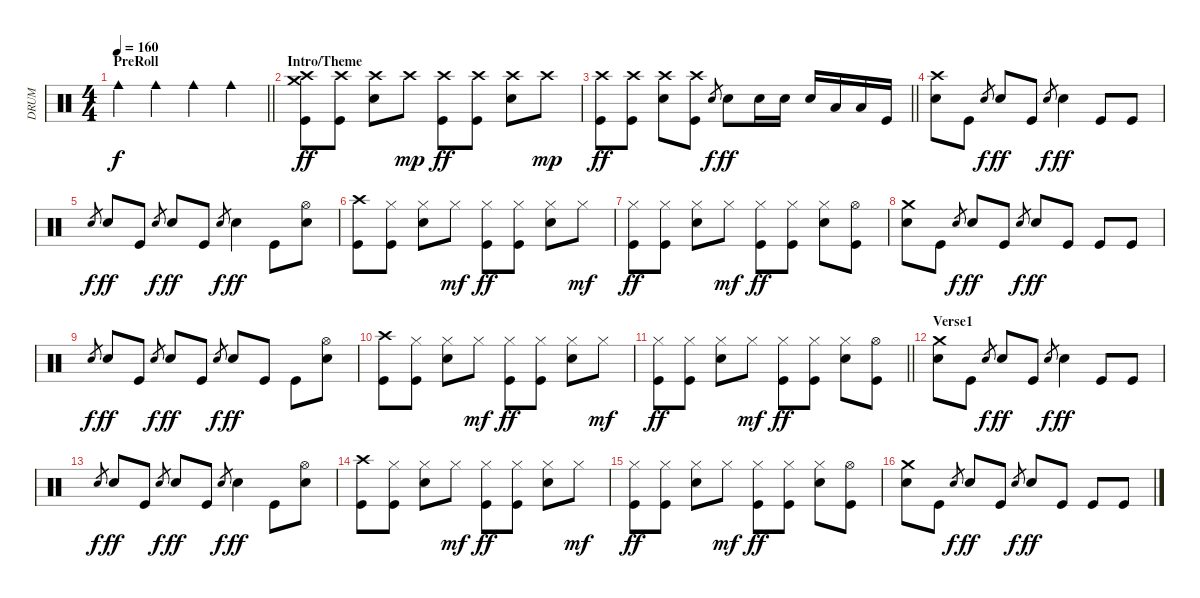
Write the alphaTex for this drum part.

\track ("DRUM" "DRUM") {instrument percussion}
\staff {score}
\articulation defaults
\ts (4 4)
\section ("" "PreRoll")
\tempo 160
\clef neutral
\barLineRight lightlight
\ks c "Cowbell medium (hit)".4{dy f} "Cowbell medium (hit)".4 "Cowbell medium (hit)".4 "Cowbell medium (hit)".4
|
\section ("" "Intro/Theme")
("Crash high (hit)" "Crash medium (hit)" "Kick (hit)").8{dy ff} ("Crash high (hit)" "Kick (hit)").8 ("Crash high (hit)" "Electric Snare (hit)").8 "Crash high (hit)".8{dy mp} ("Crash high (hit)" "Kick (hit)").8{dy ff} ("Crash high (hit)" "Kick (hit)").8 ("Crash high (hit)" "Electric Snare (hit)").8 "Crash high (hit)".8{dy mp} |
\barLineRight lightlight
("Crash high (hit)" "Kick (hit)").8{dy ff} ("Crash high (hit)" "Kick (hit)").8 ("Crash high (hit)" "Electric Snare (hit)").8 ("Crash high (hit)" "Kick (hit)").8 "Electric Snare (hit)".8{gr dy f} "Electric Snare (hit)".8{dy ff} "Electric Snare (hit)".16 "Electric Snare (hit)".16 "Electric Snare (hit)".16 "Low Tom (hit)".16 "Low Tom (hit)".16 "Kick (hit)".16 |
("Crash high (hit)" "Electric Snare (hit)").8 "Kick (hit)".8 "Electric Snare (hit)".8{gr dy f} "Electric Snare (hit)".8{dy ff} "Kick (hit)".8 "Electric Snare (hit)".8{gr dy f} "Electric Snare (hit)".4{dy ff} "Kick (hit)".8 "Kick (hit)".8 |
"Electric Snare (hit)".8{gr dy f} "Electric Snare (hit)".8{dy ff} "Kick (hit)".8 "Electric Snare (hit)".8{gr dy f} "Electric Snare (hit)".8{dy ff} "Kick (hit)".8 "Electric Snare (hit)".8{gr dy f} "Electric Snare (hit)".4{dy ff} "Kick (hit)".8 ("Hi-Hat (open)" "Electric Snare (hit)").8 |
("Crash high (hit)" "Kick (hit)").8 ("Hi-Hat (closed)" "Kick (hit)").8 ("Hi-Hat (closed)" "Electric Snare (hit)").8 "Hi-Hat (closed)".8{dy mf} ("Hi-Hat (closed)" "Kick (hit)").8{dy ff} ("Hi-Hat (closed)" "Kick (hit)").8 ("Hi-Hat (closed)" "Electric Snare (hit)").8 "Hi-Hat (closed)".8{dy mf} |
("Hi-Hat (closed)" "Kick (hit)").8{dy ff} ("Hi-Hat (closed)" "Kick (hit)").8 ("Hi-Hat (closed)" "Electric Snare (hit)").8 "Hi-Hat (closed)".8{dy mf} ("Hi-Hat (closed)" "Kick (hit)").8{dy ff} ("Hi-Hat (closed)" "Kick (hit)").8 ("Hi-Hat (closed)" "Electric Snare (hit)").8 ("Hi-Hat (open)" "Kick (hit)").8 |
("Crash medium (hit)" "Electric Snare (hit)").8 "Kick (hit)".8 "Electric Snare (hit)".8{gr dy f} "Electric Snare (hit)".8{dy ff} "Kick (hit)".8 "Electric Snare (hit)".8{gr dy f} "Electric Snare (hit)".8{dy ff} "Kick (hit)".8 "Kick (hit)".8 "Kick (hit)".8 |
"Electric Snare (hit)".8{gr dy f} "Electric Snare (hit)".8{dy ff} "Kick (hit)".8 "Electric Snare (hit)".8{gr dy f} "Electric Snare (hit)".8{dy ff} "Kick (hit)".8 "Electric Snare (hit)".8{gr dy f} "Electric Snare (hit)".8{dy ff} "Kick (hit)".8 "Kick (hit)".8 ("Hi-Hat (open)" "Electric Snare (hit)").8 |
("Crash high (hit)" "Kick (hit)").8 ("Hi-Hat (closed)" "Kick (hit)").8 ("Hi-Hat (closed)" "Electric Snare (hit)").8 "Hi-Hat (closed)".8{dy mf} ("Hi-Hat (closed)" "Kick (hit)").8{dy ff} ("Hi-Hat (closed)" "Kick (hit)").8 ("Hi-Hat (closed)" "Electric Snare (hit)").8 "Hi-Hat (closed)".8{dy mf} |
\barLineRight lightlight
("Hi-Hat (closed)" "Kick (hit)").8{dy ff} ("Hi-Hat (closed)" "Kick (hit)").8 ("Hi-Hat (closed)" "Electric Snare (hit)").8 "Hi-Hat (closed)".8{dy mf} ("Hi-Hat (closed)" "Kick (hit)").8{dy ff} ("Hi-Hat (closed)" "Kick (hit)").8 ("Hi-Hat (closed)" "Electric Snare (hit)").8 ("Hi-Hat (open)" "Kick (hit)").8 |
\section ("" "Verse1")
("Crash medium (hit)" "Electric Snare (hit)").8 "Kick (hit)".8 "Electric Snare (hit)".8{gr dy f} "Electric Snare (hit)".8{dy ff} "Kick (hit)".8 "Electric Snare (hit)".8{gr dy f} "Electric Snare (hit)".4{dy ff} "Kick (hit)".8 "Kick (hit)".8 |
"Electric Snare (hit)".8{gr dy f} "Electric Snare (hit)".8{dy ff} "Kick (hit)".8 "Electric Snare (hit)".8{gr dy f} "Electric Snare (hit)".8{dy ff} "Kick (hit)".8 "Electric Snare (hit)".8{gr dy f} "Electric Snare (hit)".4{dy ff} "Kick (hit)".8 ("Hi-Hat (open)" "Electric Snare (hit)").8 |
("Crash high (hit)" "Kick (hit)").8 ("Hi-Hat (closed)" "Kick (hit)").8 ("Hi-Hat (closed)" "Electric Snare (hit)").8 "Hi-Hat (closed)".8{dy mf} ("Hi-Hat (closed)" "Kick (hit)").8{dy ff} ("Hi-Hat (closed)" "Kick (hit)").8 ("Hi-Hat (closed)" "Electric Snare (hit)").8 "Hi-Hat (closed)".8{dy mf} |
("Hi-Hat (closed)" "Kick (hit)").8{dy ff} ("Hi-Hat (closed)" "Kick (hit)").8 ("Hi-Hat (closed)" "Electric Snare (hit)").8 "Hi-Hat (closed)".8{dy mf} ("Hi-Hat (closed)" "Kick (hit)").8{dy ff} ("Hi-Hat (closed)" "Kick (hit)").8 ("Hi-Hat (closed)" "Electric Snare (hit)").8 ("Hi-Hat (open)" "Kick (hit)").8 |
("Crash medium (hit)" "Electric Snare (hit)").8 "Kick (hit)".8 "Electric Snare (hit)".8{gr dy f} "Electric Snare (hit)".8{dy ff} "Kick (hit)".8 "Electric Snare (hit)".8{gr dy f} "Electric Snare (hit)".8{dy ff} "Kick (hit)".8 "Kick (hit)".8 "Kick (hit)".8
